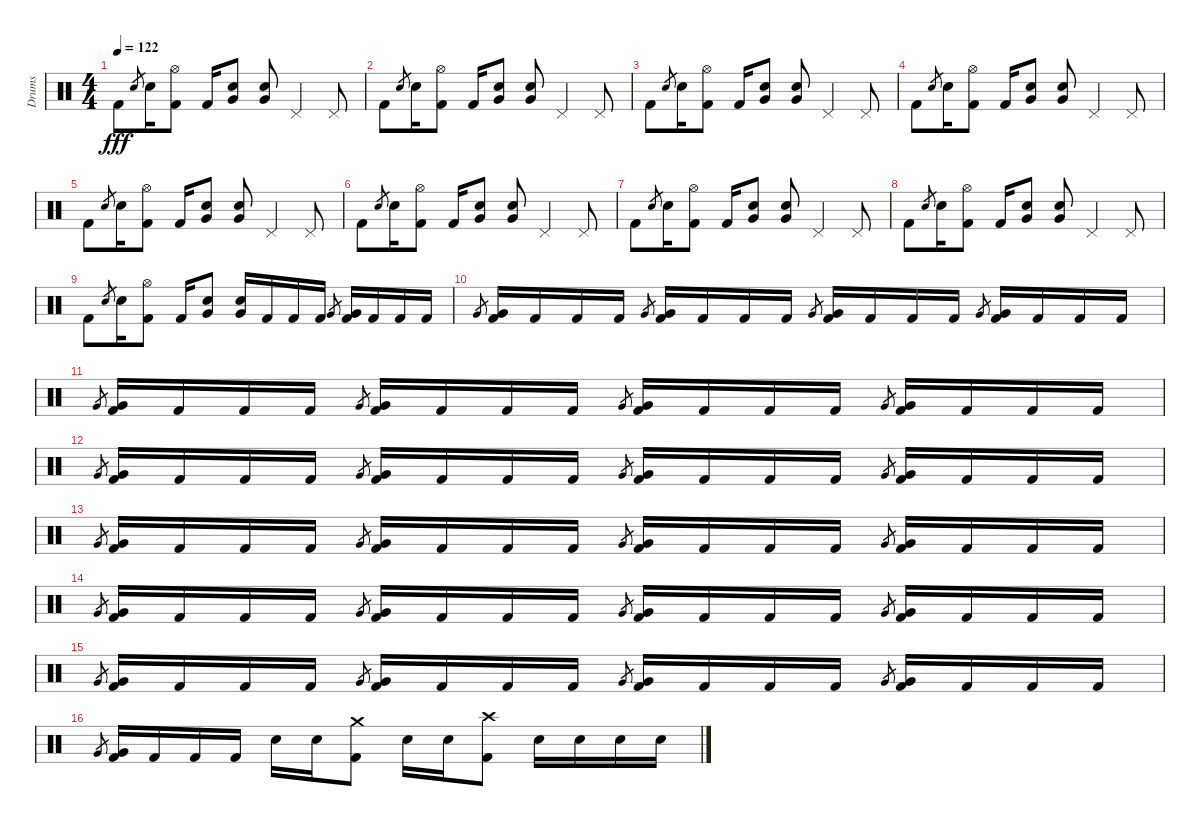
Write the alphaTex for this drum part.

\track ("Drums" "Drums") {instrument percussion}
\staff {score}
\articulation defaults
\ts (4 4)
\tempo 122
\clef neutral
\ks c "Kick (hit) 2".8{dy fff} "Electric Snare (hit)".8{gr} "Electric Snare (hit)".16
("Hi-Hat (open)" "Kick (hit) 2").8 "Kick (hit) 2".16 ("Very Low Tom (hit)" "Electric Snare (hit)").8 ("Very Low Tom (hit)" "Electric Snare (hit)").8 "Pedal Hi-Hat (hit)".4 "Pedal Hi-Hat (hit)".8 |
"Kick (hit) 2".8 "Electric Snare (hit)".8{gr} "Electric Snare (hit)".16 ("Hi-Hat (open)" "Kick (hit) 2").8 "Kick (hit) 2".16 ("Very Low Tom (hit)" "Electric Snare (hit)").8 ("Very Low Tom (hit)" "Electric Snare (hit)").8 "Pedal Hi-Hat (hit)".4 "Pedal Hi-Hat (hit)".8 |
"Kick (hit) 2".8 "Electric Snare (hit)".8{gr} "Electric Snare (hit)".16 ("Hi-Hat (open)" "Kick (hit) 2").8 "Kick (hit) 2".16 ("Very Low Tom (hit)" "Electric Snare (hit)").8 ("Very Low Tom (hit)" "Electric Snare (hit)").8 "Pedal Hi-Hat (hit)".4 "Pedal Hi-Hat (hit)".8 |
"Kick (hit) 2".8 "Electric Snare (hit)".8{gr} "Electric Snare (hit)".16 ("Hi-Hat (open)" "Kick (hit) 2").8 "Kick (hit) 2".16 ("Very Low Tom (hit)" "Electric Snare (hit)").8 ("Very Low Tom (hit)" "Electric Snare (hit)").8 "Pedal Hi-Hat (hit)".4 "Pedal Hi-Hat (hit)".8 |
"Kick (hit) 2".8 "Electric Snare (hit)".8{gr} "Electric Snare (hit)".16 ("Hi-Hat (open)" "Kick (hit) 2").8 "Kick (hit) 2".16 ("Very Low Tom (hit)" "Electric Snare (hit)").8 ("Very Low Tom (hit)" "Electric Snare (hit)").8 "Pedal Hi-Hat (hit)".4 "Pedal Hi-Hat (hit)".8 |
"Kick (hit) 2".8 "Electric Snare (hit)".8{gr} "Electric Snare (hit)".16 ("Hi-Hat (open)" "Kick (hit) 2").8 "Kick (hit) 2".16 ("Very Low Tom (hit)" "Electric Snare (hit)").8 ("Very Low Tom (hit)" "Electric Snare (hit)").8 "Pedal Hi-Hat (hit)".4 "Pedal Hi-Hat (hit)".8 |
"Kick (hit) 2".8 "Electric Snare (hit)".8{gr} "Electric Snare (hit)".16 ("Hi-Hat (open)" "Kick (hit) 2").8 "Kick (hit) 2".16 ("Very Low Tom (hit)" "Electric Snare (hit)").8 ("Very Low Tom (hit)" "Electric Snare (hit)").8 "Pedal Hi-Hat (hit)".4 "Pedal Hi-Hat (hit)".8 |
"Kick (hit) 2".8 "Electric Snare (hit)".8{gr} "Electric Snare (hit)".16 ("Hi-Hat (open)" "Kick (hit) 2").8 "Kick (hit) 2".16 ("Very Low Tom (hit)" "Electric Snare (hit)").8 ("Very Low Tom (hit)" "Electric Snare (hit)").8 "Pedal Hi-Hat (hit)".4 "Pedal Hi-Hat (hit)".8 |
"Kick (hit) 2".8 "Electric Snare (hit)".8{gr} "Electric Snare (hit)".16 ("Hi-Hat (open)" "Kick (hit) 2").8 "Kick (hit) 2".16 ("Very Low Tom (hit)" "Electric Snare (hit)").8 ("Very Low Tom (hit)" "Electric Snare (hit)").16 "Kick (hit) 2".16 "Kick (hit) 2".16 "Kick (hit) 2".16 "Very Low Tom (hit)".8{gr} ("Very Low Tom (hit)" "Kick (hit) 2").16 "Kick (hit) 2".16 "Kick (hit) 2".16 "Kick (hit) 2".16 |
"Very Low Tom (hit)".8{gr} ("Very Low Tom (hit)" "Kick (hit) 2").16 "Kick (hit) 2".16 "Kick (hit) 2".16 "Kick (hit) 2".16 "Very Low Tom (hit)".8{gr} ("Very Low Tom (hit)" "Kick (hit) 2").16 "Kick (hit) 2".16 "Kick (hit) 2".16 "Kick (hit) 2".16 "Very Low Tom (hit)".8{gr} ("Very Low Tom (hit)" "Kick (hit) 2").16 "Kick (hit) 2".16 "Kick (hit) 2".16 "Kick (hit) 2".16 "Very Low Tom (hit)".8{gr} ("Very Low Tom (hit)" "Kick (hit) 2").16 "Kick (hit) 2".16 "Kick (hit) 2".16 "Kick (hit) 2".16 |
"Very Low Tom (hit)".8{gr} ("Very Low Tom (hit)" "Kick (hit) 2").16 "Kick (hit) 2".16 "Kick (hit) 2".16 "Kick (hit) 2".16 "Very Low Tom (hit)".8{gr} ("Very Low Tom (hit)" "Kick (hit) 2").16 "Kick (hit) 2".16 "Kick (hit) 2".16 "Kick (hit) 2".16 "Very Low Tom (hit)".8{gr} ("Very Low Tom (hit)" "Kick (hit) 2").16 "Kick (hit) 2".16 "Kick (hit) 2".16 "Kick (hit) 2".16 "Very Low Tom (hit)".8{gr} ("Very Low Tom (hit)" "Kick (hit) 2").16 "Kick (hit) 2".16 "Kick (hit) 2".16 "Kick (hit) 2".16 |
"Very Low Tom (hit)".8{gr} ("Very Low Tom (hit)" "Kick (hit) 2").16 "Kick (hit) 2".16 "Kick (hit) 2".16 "Kick (hit) 2".16 "Very Low Tom (hit)".8{gr} ("Very Low Tom (hit)" "Kick (hit) 2").16 "Kick (hit) 2".16 "Kick (hit) 2".16 "Kick (hit) 2".16 "Very Low Tom (hit)".8{gr} ("Very Low Tom (hit)" "Kick (hit) 2").16 "Kick (hit) 2".16 "Kick (hit) 2".16 "Kick (hit) 2".16 "Very Low Tom (hit)".8{gr} ("Very Low Tom (hit)" "Kick (hit) 2").16 "Kick (hit) 2".16 "Kick (hit) 2".16 "Kick (hit) 2".16 |
"Very Low Tom (hit)".8{gr} ("Very Low Tom (hit)" "Kick (hit) 2").16 "Kick (hit) 2".16 "Kick (hit) 2".16 "Kick (hit) 2".16 "Very Low Tom (hit)".8{gr} ("Very Low Tom (hit)" "Kick (hit) 2").16 "Kick (hit) 2".16 "Kick (hit) 2".16 "Kick (hit) 2".16 "Very Low Tom (hit)".8{gr} ("Very Low Tom (hit)" "Kick (hit) 2").16 "Kick (hit) 2".16 "Kick (hit) 2".16 "Kick (hit) 2".16 "Very Low Tom (hit)".8{gr} ("Very Low Tom (hit)" "Kick (hit) 2").16 "Kick (hit) 2".16 "Kick (hit) 2".16 "Kick (hit) 2".16 |
"Very Low Tom (hit)".8{gr} ("Very Low Tom (hit)" "Kick (hit) 2").16 "Kick (hit) 2".16 "Kick (hit) 2".16 "Kick (hit) 2".16 "Very Low Tom (hit)".8{gr} ("Very Low Tom (hit)" "Kick (hit) 2").16 "Kick (hit) 2".16 "Kick (hit) 2".16 "Kick (hit) 2".16 "Very Low Tom (hit)".8{gr} ("Very Low Tom (hit)" "Kick (hit) 2").16 "Kick (hit) 2".16 "Kick (hit) 2".16 "Kick (hit) 2".16 "Very Low Tom (hit)".8{gr} ("Very Low Tom (hit)" "Kick (hit) 2").16 "Kick (hit) 2".16 "Kick (hit) 2".16 "Kick (hit) 2".16 |
"Very Low Tom (hit)".8{gr} ("Very Low Tom (hit)" "Kick (hit) 2").16 "Kick (hit) 2".16 "Kick (hit) 2".16 "Kick (hit) 2".16 "Very Low Tom (hit)".8{gr} ("Very Low Tom (hit)" "Kick (hit) 2").16 "Kick (hit) 2".16 "Kick (hit) 2".16 "Kick (hit) 2".16 "Very Low Tom (hit)".8{gr} ("Very Low Tom (hit)" "Kick (hit) 2").16 "Kick (hit) 2".16 "Kick (hit) 2".16 "Kick (hit) 2".16 "Very Low Tom (hit)".8{gr} ("Very Low Tom (hit)" "Kick (hit) 2").16 "Kick (hit) 2".16 "Kick (hit) 2".16 "Kick (hit) 2".16 |
"Very Low Tom (hit)".8{gr} ("Very Low Tom (hit)" "Kick (hit) 2").16 "Kick (hit) 2".16 "Kick (hit) 2".16 "Kick (hit) 2".16 "Electric Snare (hit)".16 "Electric Snare (hit)".16 ("Crash medium (hit)" "Kick (hit) 2").8 "Electric Snare (hit)".16 "Electric Snare (hit)".16 ("Crash high (hit)" "Kick (hit) 2").8 "Electric Snare (hit)".16 "Electric Snare (hit)".16 "Electric Snare (hit)".16 "Electric Snare (hit)".16
